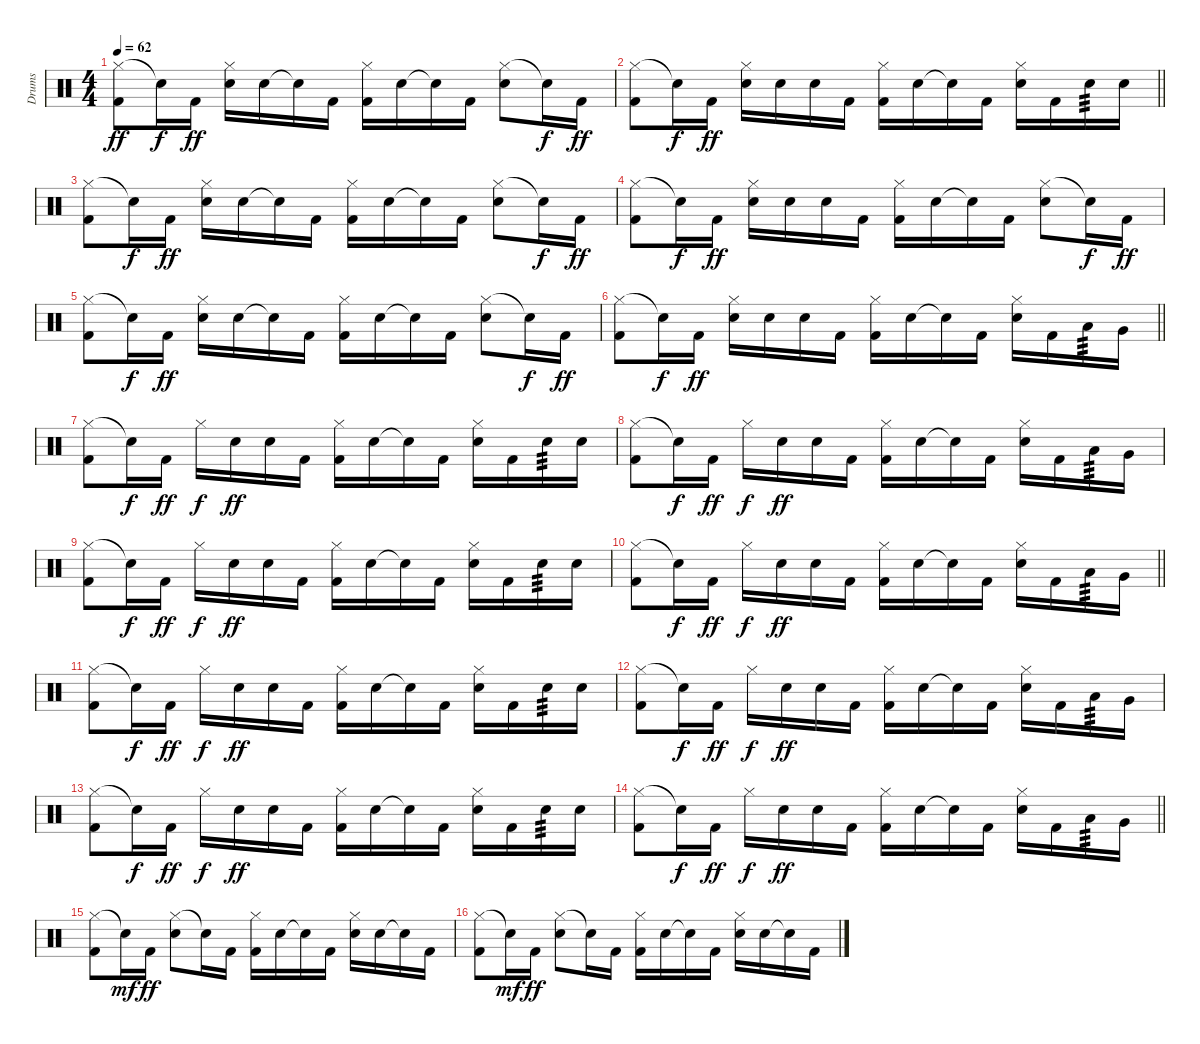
\track ("Drums" "Drums") {instrument percussion}
\staff {score}
\articulation defaults
\ts (4 4)
\tempo 62
\clef neutral
\ks c
("Hi-Hat (closed)" "Kick (hit) 2").8{dy ff} "Snare (hit)"{t}.16{dy f} "Kick (hit) 2".16{dy ff} ("Hi-Hat (closed)" "Snare (hit) 2").16 "Snare (hit) 2".16 "Snare (hit)"{t}.16 "Kick (hit) 2".16 ("Hi-Hat (closed)" "Kick (hit) 2").16 "Snare (hit) 2".16 "Snare (hit)"{t}.16 "Kick (hit) 2".16 ("Hi-Hat (closed)" "Snare (hit) 2").8 "Snare (hit) 2"{t}.16{dy f} "Kick (hit) 2".16{dy ff} |
\barLineRight lightlight
("Hi-Hat (closed)" "Kick (hit) 2").8 "Snare (hit)"{t}.16{dy f} "Kick (hit) 2".16{dy ff} ("Hi-Hat (closed)" "Snare (hit) 2").16 "Snare (hit) 2".16 "Snare (hit) 2".16 "Kick (hit) 2".16 ("Hi-Hat (closed)" "Kick (hit) 2").16 "Snare (hit) 2".16 "Snare (hit)"{t}.16 "Kick (hit) 2".16 ("Hi-Hat (closed)" "Snare (hit) 2").16 "Kick (hit) 2".16 "Snare (hit) 2".16{tp 3} "Snare (hit) 2".16 |
\section ("" "")
("Hi-Hat (closed)" "Kick (hit) 2").8 "Snare (hit)"{t}.16{dy f} "Kick (hit) 2".16{dy ff} ("Hi-Hat (closed)" "Snare (hit) 2").16 "Snare (hit) 2".16 "Snare (hit)"{t}.16 "Kick (hit) 2".16 ("Hi-Hat (closed)" "Kick (hit) 2").16 "Snare (hit) 2".16 "Snare (hit)"{t}.16 "Kick (hit) 2".16 ("Hi-Hat (closed)" "Snare (hit) 2").8 "Snare (hit) 2"{t}.16{dy f} "Kick (hit) 2".16{dy ff} |
("Hi-Hat (closed)" "Kick (hit) 2").8 "Snare (hit)"{t}.16{dy f} "Kick (hit) 2".16{dy ff} ("Hi-Hat (closed)" "Snare (hit) 2").16 "Snare (hit) 2".16 "Snare (hit) 2".16 "Kick (hit) 2".16 ("Hi-Hat (closed)" "Kick (hit) 2").16 "Snare (hit) 2".16 "Snare (hit)"{t}.16 "Kick (hit) 2".16 ("Hi-Hat (closed)" "Snare (hit) 2").8 "Snare (hit) 2"{t}.16{dy f} "Kick (hit) 2".16{dy ff} |
("Hi-Hat (closed)" "Kick (hit) 2").8 "Snare (hit)"{t}.16{dy f} "Kick (hit) 2".16{dy ff} ("Hi-Hat (closed)" "Snare (hit) 2").16 "Snare (hit) 2".16 "Snare (hit)"{t}.16 "Kick (hit) 2".16 ("Hi-Hat (closed)" "Kick (hit) 2").16 "Snare (hit) 2".16 "Snare (hit)"{t}.16 "Kick (hit) 2".16 ("Hi-Hat (closed)" "Snare (hit) 2").8 "Snare (hit) 2"{t}.16{dy f} "Kick (hit) 2".16{dy ff} |
\barLineRight lightlight
("Hi-Hat (closed)" "Kick (hit) 2").8 "Snare (hit)"{t}.16{dy f} "Kick (hit) 2".16{dy ff} ("Hi-Hat (closed)" "Snare (hit) 2").16 "Snare (hit) 2".16 "Snare (hit) 2".16 "Kick (hit) 2".16 ("Hi-Hat (closed)" "Kick (hit) 2").16 "Snare (hit) 2".16 "Snare (hit)"{t}.16 "Kick (hit) 2".16 ("Hi-Hat (closed)" "Snare (hit) 2").16 "Kick (hit) 2".16 "Low Tom (hit)".16{tp 3} "Very Low Tom (hit)".16 |
\section ("" "")
("Hi-Hat (closed)" "Kick (hit) 2").8 "Snare (hit)"{t}.16{dy f} "Kick (hit) 2".16{dy ff} "Hi-Hat (closed)".16{dy f} "Snare (hit) 2".16{dy ff} "Snare (hit) 2".16 "Kick (hit) 2".16 ("Hi-Hat (closed)" "Kick (hit) 2").16 "Snare (hit) 2".16 "Snare (hit)"{t}.16 "Kick (hit) 2".16 ("Hi-Hat (closed)" "Snare (hit) 2").16 "Kick (hit) 2".16 "Snare (hit) 2".16{tp 3} "Snare (hit) 2".16 |
("Hi-Hat (closed)" "Kick (hit) 2").8 "Snare (hit)"{t}.16{dy f} "Kick (hit) 2".16{dy ff} "Hi-Hat (closed)".16{dy f} "Snare (hit) 2".16{dy ff} "Snare (hit) 2".16 "Kick (hit) 2".16 ("Hi-Hat (closed)" "Kick (hit) 2").16 "Snare (hit) 2".16 "Snare (hit)"{t}.16 "Kick (hit) 2".16 ("Hi-Hat (closed)" "Snare (hit) 2").16 "Kick (hit) 2".16 "Low Tom (hit)".16{tp 3} "Very Low Tom (hit)".16 |
("Hi-Hat (closed)" "Kick (hit) 2").8 "Snare (hit)"{t}.16{dy f} "Kick (hit) 2".16{dy ff} "Hi-Hat (closed)".16{dy f} "Snare (hit) 2".16{dy ff} "Snare (hit) 2".16 "Kick (hit) 2".16 ("Hi-Hat (closed)" "Kick (hit) 2").16 "Snare (hit) 2".16 "Snare (hit)"{t}.16 "Kick (hit) 2".16 ("Hi-Hat (closed)" "Snare (hit) 2").16 "Kick (hit) 2".16 "Snare (hit) 2".16{tp 3} "Snare (hit) 2".16 |
\barLineRight lightlight
("Hi-Hat (closed)" "Kick (hit) 2").8 "Snare (hit)"{t}.16{dy f} "Kick (hit) 2".16{dy ff} "Hi-Hat (closed)".16{dy f} "Snare (hit) 2".16{dy ff} "Snare (hit) 2".16 "Kick (hit) 2".16 ("Hi-Hat (closed)" "Kick (hit) 2").16 "Snare (hit) 2".16 "Snare (hit)"{t}.16 "Kick (hit) 2".16 ("Hi-Hat (closed)" "Snare (hit) 2").16 "Kick (hit) 2".16 "Low Tom (hit)".16{tp 3} "Very Low Tom (hit)".16 |
\section ("" "")
("Hi-Hat (closed)" "Kick (hit) 2").8 "Snare (hit)"{t}.16{dy f} "Kick (hit) 2".16{dy ff} "Hi-Hat (closed)".16{dy f} "Snare (hit) 2".16{dy ff} "Snare (hit) 2".16 "Kick (hit) 2".16 ("Hi-Hat (closed)" "Kick (hit) 2").16 "Snare (hit) 2".16 "Snare (hit)"{t}.16 "Kick (hit) 2".16 ("Hi-Hat (closed)" "Snare (hit) 2").16 "Kick (hit) 2".16 "Snare (hit) 2".16{tp 3} "Snare (hit) 2".16 |
("Hi-Hat (closed)" "Kick (hit) 2").8 "Snare (hit)"{t}.16{dy f} "Kick (hit) 2".16{dy ff} "Hi-Hat (closed)".16{dy f} "Snare (hit) 2".16{dy ff} "Snare (hit) 2".16 "Kick (hit) 2".16 ("Hi-Hat (closed)" "Kick (hit) 2").16 "Snare (hit) 2".16 "Snare (hit)"{t}.16 "Kick (hit) 2".16 ("Hi-Hat (closed)" "Snare (hit) 2").16 "Kick (hit) 2".16 "Low Tom (hit)".16{tp 3} "Very Low Tom (hit)".16 |
("Hi-Hat (closed)" "Kick (hit) 2").8 "Snare (hit)"{t}.16{dy f} "Kick (hit) 2".16{dy ff} "Hi-Hat (closed)".16{dy f} "Snare (hit) 2".16{dy ff} "Snare (hit) 2".16 "Kick (hit) 2".16 ("Hi-Hat (closed)" "Kick (hit) 2").16 "Snare (hit) 2".16 "Snare (hit)"{t}.16 "Kick (hit) 2".16 ("Hi-Hat (closed)" "Snare (hit) 2").16 "Kick (hit) 2".16 "Snare (hit) 2".16{tp 3} "Snare (hit) 2".16 |
\barLineRight lightlight
("Hi-Hat (closed)" "Kick (hit) 2").8 "Snare (hit)"{t}.16{dy f} "Kick (hit) 2".16{dy ff} "Hi-Hat (closed)".16{dy f} "Snare (hit) 2".16{dy ff} "Snare (hit) 2".16 "Kick (hit) 2".16 ("Hi-Hat (closed)" "Kick (hit) 2").16 "Snare (hit) 2".16 "Snare (hit)"{t}.16 "Kick (hit) 2".16 ("Hi-Hat (closed)" "Snare (hit) 2").16 "Kick (hit) 2".16 "Low Tom (hit)".16{tp 3} "Very Low Tom (hit)".16 |
\section ("" "")
("Hi-Hat (closed)" "Kick (hit) 2").8 "Snare (hit)"{t}.16{dy mf} "Kick (hit) 2".16{dy ff} ("Hi-Hat (closed)" "Snare (hit) 2").8 "Snare (hit)"{t}.16 "Kick (hit) 2".16 ("Hi-Hat (closed)" "Kick (hit) 2").16 "Snare (hit) 2".16 "Snare (hit)"{t}.16 "Kick (hit) 2".16 ("Hi-Hat (closed)" "Snare (hit) 2").16 "Snare (hit) 2".16 "Snare (hit) 2"{t}.16 "Kick (hit) 2".16 |
("Hi-Hat (closed)" "Kick (hit) 2").8 "Snare (hit)"{t}.16{dy mf} "Kick (hit) 2".16{dy ff} ("Hi-Hat (closed)" "Snare (hit) 2").8 "Snare (hit)"{t}.16 "Kick (hit) 2".16 ("Hi-Hat (closed)" "Kick (hit) 2").16 "Snare (hit) 2".16 "Snare (hit)"{t}.16 "Kick (hit) 2".16 ("Hi-Hat (closed)" "Snare (hit) 2").16 "Snare (hit) 2".16 "Snare (hit) 2"{t}.16 "Kick (hit) 2".16
